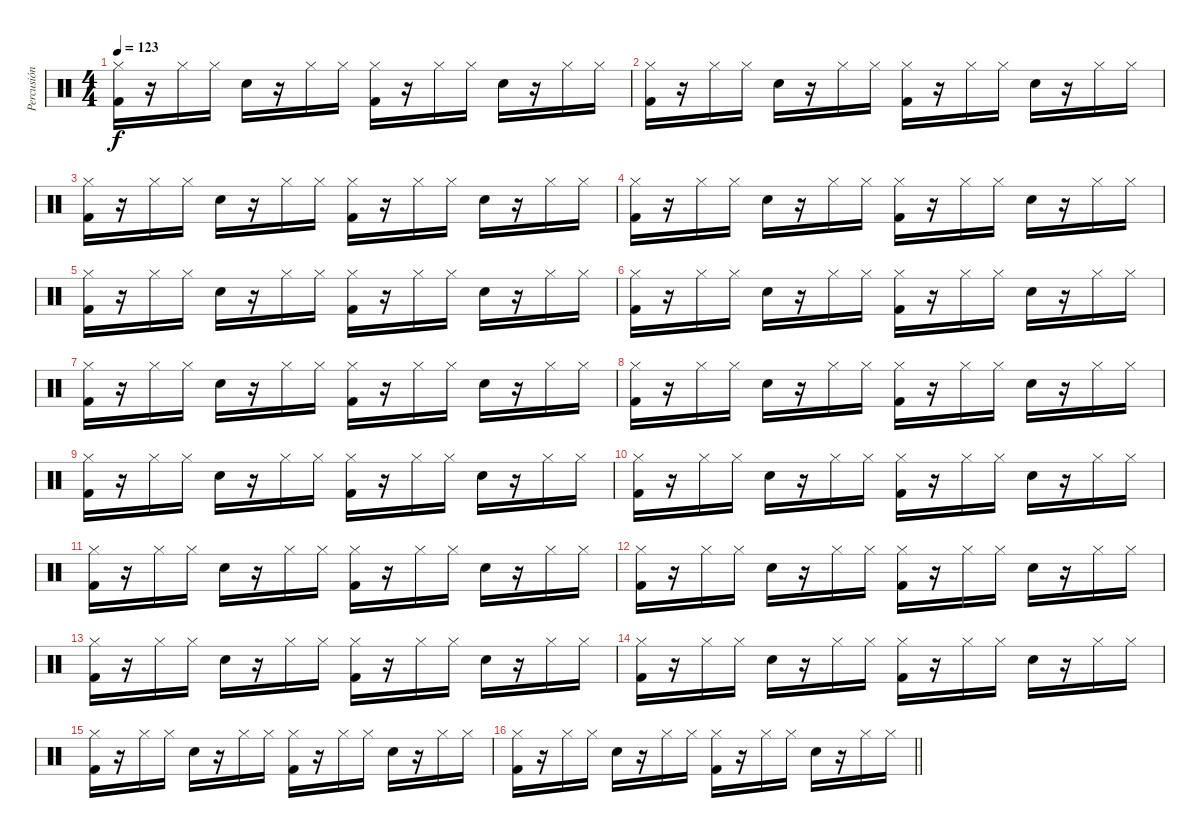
\track ("Percusión" "Percusión") {instrument percussion}
\staff {score}
\articulation defaults
\ts (4 4)
\tempo 123
\clef neutral
\ks c
("Hi-Hat (closed)" "Kick (hit) 2").16{dy f} r.16 "Hi-Hat (closed)".16 "Hi-Hat (closed)".16 "Snare (hit) 2".16 r.16 "Hi-Hat (closed)".16 "Hi-Hat (closed)".16 ("Hi-Hat (closed)" "Kick (hit) 2").16 r.16 "Hi-Hat (closed)".16 "Hi-Hat (closed)".16 "Snare (hit) 2".16 r.16 "Hi-Hat (closed)".16 "Hi-Hat (closed)".16 |
("Hi-Hat (closed)" "Kick (hit) 2").16 r.16 "Hi-Hat (closed)".16 "Hi-Hat (closed)".16 "Snare (hit) 2".16 r.16 "Hi-Hat (closed)".16 "Hi-Hat (closed)".16 ("Hi-Hat (closed)" "Kick (hit) 2").16 r.16 "Hi-Hat (closed)".16 "Hi-Hat (closed)".16 "Snare (hit) 2".16 r.16 "Hi-Hat (closed)".16 "Hi-Hat (closed)".16 |
("Hi-Hat (closed)" "Kick (hit) 2").16 r.16 "Hi-Hat (closed)".16 "Hi-Hat (closed)".16 "Snare (hit) 2".16 r.16 "Hi-Hat (closed)".16 "Hi-Hat (closed)".16 ("Hi-Hat (closed)" "Kick (hit) 2").16 r.16 "Hi-Hat (closed)".16 "Hi-Hat (closed)".16 "Snare (hit) 2".16 r.16 "Hi-Hat (closed)".16 "Hi-Hat (closed)".16 |
("Hi-Hat (closed)" "Kick (hit) 2").16 r.16 "Hi-Hat (closed)".16 "Hi-Hat (closed)".16 "Snare (hit) 2".16 r.16 "Hi-Hat (closed)".16 "Hi-Hat (closed)".16 ("Hi-Hat (closed)" "Kick (hit) 2").16 r.16 "Hi-Hat (closed)".16 "Hi-Hat (closed)".16 "Snare (hit) 2".16 r.16 "Hi-Hat (closed)".16 "Hi-Hat (closed)".16 |
("Hi-Hat (closed)" "Kick (hit) 2").16 r.16 "Hi-Hat (closed)".16 "Hi-Hat (closed)".16 "Snare (hit) 2".16 r.16 "Hi-Hat (closed)".16 "Hi-Hat (closed)".16 ("Hi-Hat (closed)" "Kick (hit) 2").16 r.16 "Hi-Hat (closed)".16 "Hi-Hat (closed)".16 "Snare (hit) 2".16 r.16 "Hi-Hat (closed)".16 "Hi-Hat (closed)".16 |
("Hi-Hat (closed)" "Kick (hit) 2").16 r.16 "Hi-Hat (closed)".16 "Hi-Hat (closed)".16 "Snare (hit) 2".16 r.16 "Hi-Hat (closed)".16 "Hi-Hat (closed)".16 ("Hi-Hat (closed)" "Kick (hit) 2").16 r.16 "Hi-Hat (closed)".16 "Hi-Hat (closed)".16 "Snare (hit) 2".16 r.16 "Hi-Hat (closed)".16 "Hi-Hat (closed)".16 |
("Hi-Hat (closed)" "Kick (hit) 2").16 r.16 "Hi-Hat (closed)".16 "Hi-Hat (closed)".16 "Snare (hit) 2".16 r.16 "Hi-Hat (closed)".16 "Hi-Hat (closed)".16 ("Hi-Hat (closed)" "Kick (hit) 2").16 r.16 "Hi-Hat (closed)".16 "Hi-Hat (closed)".16 "Snare (hit) 2".16 r.16 "Hi-Hat (closed)".16 "Hi-Hat (closed)".16 |
("Hi-Hat (closed)" "Kick (hit) 2").16 r.16 "Hi-Hat (closed)".16 "Hi-Hat (closed)".16 "Snare (hit) 2".16 r.16 "Hi-Hat (closed)".16 "Hi-Hat (closed)".16 ("Hi-Hat (closed)" "Kick (hit) 2").16 r.16 "Hi-Hat (closed)".16 "Hi-Hat (closed)".16 "Snare (hit) 2".16 r.16 "Hi-Hat (closed)".16 "Hi-Hat (closed)".16 |
("Hi-Hat (closed)" "Kick (hit) 2").16 r.16 "Hi-Hat (closed)".16 "Hi-Hat (closed)".16 "Snare (hit) 2".16 r.16 "Hi-Hat (closed)".16 "Hi-Hat (closed)".16 ("Hi-Hat (closed)" "Kick (hit) 2").16 r.16 "Hi-Hat (closed)".16 "Hi-Hat (closed)".16 "Snare (hit) 2".16 r.16 "Hi-Hat (closed)".16 "Hi-Hat (closed)".16 |
("Hi-Hat (closed)" "Kick (hit) 2").16 r.16 "Hi-Hat (closed)".16 "Hi-Hat (closed)".16 "Snare (hit) 2".16 r.16 "Hi-Hat (closed)".16 "Hi-Hat (closed)".16 ("Hi-Hat (closed)" "Kick (hit) 2").16 r.16 "Hi-Hat (closed)".16 "Hi-Hat (closed)".16 "Snare (hit) 2".16 r.16 "Hi-Hat (closed)".16 "Hi-Hat (closed)".16 |
("Hi-Hat (closed)" "Kick (hit) 2").16 r.16 "Hi-Hat (closed)".16 "Hi-Hat (closed)".16 "Snare (hit) 2".16 r.16 "Hi-Hat (closed)".16 "Hi-Hat (closed)".16 ("Hi-Hat (closed)" "Kick (hit) 2").16 r.16 "Hi-Hat (closed)".16 "Hi-Hat (closed)".16 "Snare (hit) 2".16 r.16 "Hi-Hat (closed)".16 "Hi-Hat (closed)".16 |
("Hi-Hat (closed)" "Kick (hit) 2").16 r.16 "Hi-Hat (closed)".16 "Hi-Hat (closed)".16 "Snare (hit) 2".16 r.16 "Hi-Hat (closed)".16 "Hi-Hat (closed)".16 ("Hi-Hat (closed)" "Kick (hit) 2").16 r.16 "Hi-Hat (closed)".16 "Hi-Hat (closed)".16 "Snare (hit) 2".16 r.16 "Hi-Hat (closed)".16 "Hi-Hat (closed)".16 |
("Hi-Hat (closed)" "Kick (hit) 2").16 r.16 "Hi-Hat (closed)".16 "Hi-Hat (closed)".16 "Snare (hit) 2".16 r.16 "Hi-Hat (closed)".16 "Hi-Hat (closed)".16 ("Hi-Hat (closed)" "Kick (hit) 2").16 r.16 "Hi-Hat (closed)".16 "Hi-Hat (closed)".16 "Snare (hit) 2".16 r.16 "Hi-Hat (closed)".16 "Hi-Hat (closed)".16 |
("Hi-Hat (closed)" "Kick (hit) 2").16 r.16 "Hi-Hat (closed)".16 "Hi-Hat (closed)".16 "Snare (hit) 2".16 r.16 "Hi-Hat (closed)".16 "Hi-Hat (closed)".16 ("Hi-Hat (closed)" "Kick (hit) 2").16 r.16 "Hi-Hat (closed)".16 "Hi-Hat (closed)".16 "Snare (hit) 2".16 r.16 "Hi-Hat (closed)".16 "Hi-Hat (closed)".16 |
("Hi-Hat (closed)" "Kick (hit) 2").16 r.16 "Hi-Hat (closed)".16 "Hi-Hat (closed)".16 "Snare (hit) 2".16 r.16 "Hi-Hat (closed)".16 "Hi-Hat (closed)".16 ("Hi-Hat (closed)" "Kick (hit) 2").16 r.16 "Hi-Hat (closed)".16 "Hi-Hat (closed)".16 "Snare (hit) 2".16 r.16 "Hi-Hat (closed)".16 "Hi-Hat (closed)".16 |
\barLineRight lightlight
("Hi-Hat (closed)" "Kick (hit) 2").16 r.16 "Hi-Hat (closed)".16 "Hi-Hat (closed)".16 "Snare (hit) 2".16 r.16 "Hi-Hat (closed)".16 "Hi-Hat (closed)".16 ("Hi-Hat (closed)" "Kick (hit) 2").16 r.16 "Hi-Hat (closed)".16 "Hi-Hat (closed)".16 "Snare (hit) 2".16 r.16 "Hi-Hat (closed)".16 "Hi-Hat (closed)".16
